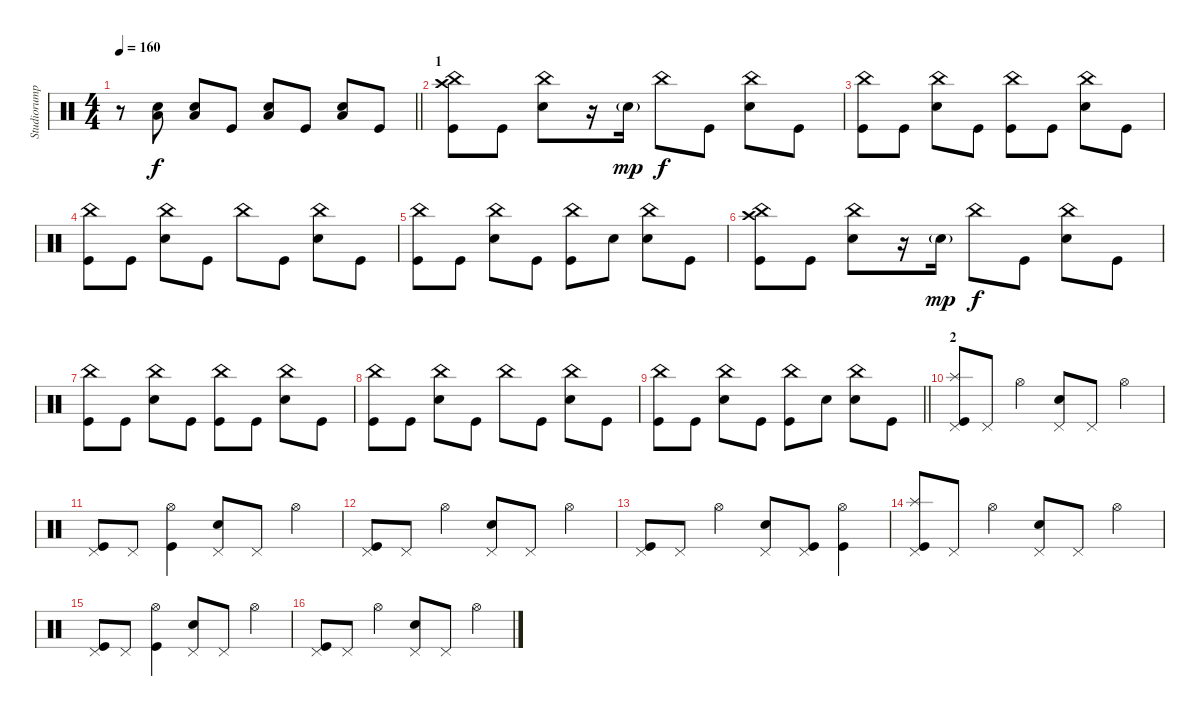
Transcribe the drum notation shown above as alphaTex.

\track ("Studiorumpali" "Studiorump") {instrument percussion}
\staff {score}
\articulation defaults
\ts (4 4)
\tempo 160
\clef neutral
\barLineRight lightlight
\ks c
r.8{dy f volume 12} ("Snare (hit) 2" "Low Tom (hit)").8 ("Snare (hit) 2" "Low Tom (hit)").8 "Kick (hit)".8 ("Snare (hit) 2" "Low Tom (hit)").8 "Kick (hit)".8 ("Snare (hit) 2" "Low Tom (hit)").8 "Kick (hit)".8 |
\section ("" "1")
("Crash high (hit)" "China (hit)" "Kick (hit)").8 "Kick (hit)".8 ("China (hit)" "Snare (hit) 2").8 r.16 "Snare (hit) 2"{g}.16{dy mp} "China (hit)".8{dy f} "Kick (hit)".8 ("China (hit)" "Snare (hit) 2").8 "Kick (hit)".8 |
("China (hit)" "Kick (hit)").8 "Kick (hit)".8 ("China (hit)" "Snare (hit) 2").8 "Kick (hit)".8 ("China (hit)" "Kick (hit)").8 "Kick (hit)".8 ("China (hit)" "Snare (hit) 2").8 "Kick (hit)".8 |
("China (hit)" "Kick (hit)").8 "Kick (hit)".8 ("China (hit)" "Snare (hit) 2").8 "Kick (hit)".8 "China (hit)".8 "Kick (hit)".8 ("China (hit)" "Snare (hit) 2").8 "Kick (hit)".8 |
("China (hit)" "Kick (hit)").8 "Kick (hit)".8 ("China (hit)" "Snare (hit) 2").8 "Kick (hit)".8 ("China (hit)" "Kick (hit)").8 "Snare (hit) 2".8 ("China (hit)" "Snare (hit) 2").8 "Kick (hit)".8 |
("Crash high (hit)" "China (hit)" "Kick (hit)").8 "Kick (hit)".8 ("China (hit)" "Snare (hit) 2").8 r.16 "Snare (hit) 2"{g}.16{dy mp} "China (hit)".8{dy f} "Kick (hit)".8 ("China (hit)" "Snare (hit) 2").8 "Kick (hit)".8 |
("China (hit)" "Kick (hit)").8 "Kick (hit)".8 ("China (hit)" "Snare (hit) 2").8 "Kick (hit)".8 ("China (hit)" "Kick (hit)").8 "Kick (hit)".8 ("China (hit)" "Snare (hit) 2").8 "Kick (hit)".8 |
("China (hit)" "Kick (hit)").8 "Kick (hit)".8 ("China (hit)" "Snare (hit) 2").8 "Kick (hit)".8 "China (hit)".8 "Kick (hit)".8 ("China (hit)" "Snare (hit) 2").8 "Kick (hit)".8 |
\barLineRight lightlight
("China (hit)" "Kick (hit)").8 "Kick (hit)".8 ("China (hit)" "Snare (hit) 2").8 "Kick (hit)".8 ("China (hit)" "Kick (hit)").8 "Snare (hit) 2".8 ("China (hit)" "Snare (hit) 2").8 "Kick (hit)".8 |
\section ("" "2")
("Splash (hit)" "Pedal Hi-Hat (hit)" "Kick (hit)").8 "Pedal Hi-Hat (hit)".8 "Hi-Hat (open)".4 ("Pedal Hi-Hat (hit)" "Snare (hit) 2").8 "Pedal Hi-Hat (hit)".8 "Hi-Hat (open)".4 |
("Pedal Hi-Hat (hit)" "Kick (hit)").8 "Pedal Hi-Hat (hit)".8 ("Hi-Hat (open)" "Kick (hit)").4 ("Pedal Hi-Hat (hit)" "Snare (hit) 2").8 "Pedal Hi-Hat (hit)".8 "Hi-Hat (open)".4 |
("Pedal Hi-Hat (hit)" "Kick (hit)").8 "Pedal Hi-Hat (hit)".8 "Hi-Hat (open)".4 ("Pedal Hi-Hat (hit)" "Snare (hit) 2").8 "Pedal Hi-Hat (hit)".8 "Hi-Hat (open)".4 |
("Pedal Hi-Hat (hit)" "Kick (hit)").8 "Pedal Hi-Hat (hit)".8 "Hi-Hat (open)".4 ("Pedal Hi-Hat (hit)" "Snare (hit) 2").8 ("Pedal Hi-Hat (hit)" "Kick (hit)").8 ("Hi-Hat (open)" "Kick (hit)").4 |
("Splash (hit)" "Pedal Hi-Hat (hit)" "Kick (hit)").8 "Pedal Hi-Hat (hit)".8 "Hi-Hat (open)".4 ("Pedal Hi-Hat (hit)" "Snare (hit) 2").8 "Pedal Hi-Hat (hit)".8 "Hi-Hat (open)".4 |
("Pedal Hi-Hat (hit)" "Kick (hit)").8 "Pedal Hi-Hat (hit)".8 ("Hi-Hat (open)" "Kick (hit)").4 ("Pedal Hi-Hat (hit)" "Snare (hit) 2").8 "Pedal Hi-Hat (hit)".8 "Hi-Hat (open)".4 |
("Pedal Hi-Hat (hit)" "Kick (hit)").8 "Pedal Hi-Hat (hit)".8 "Hi-Hat (open)".4 ("Pedal Hi-Hat (hit)" "Snare (hit) 2").8 "Pedal Hi-Hat (hit)".8 "Hi-Hat (open)".4
